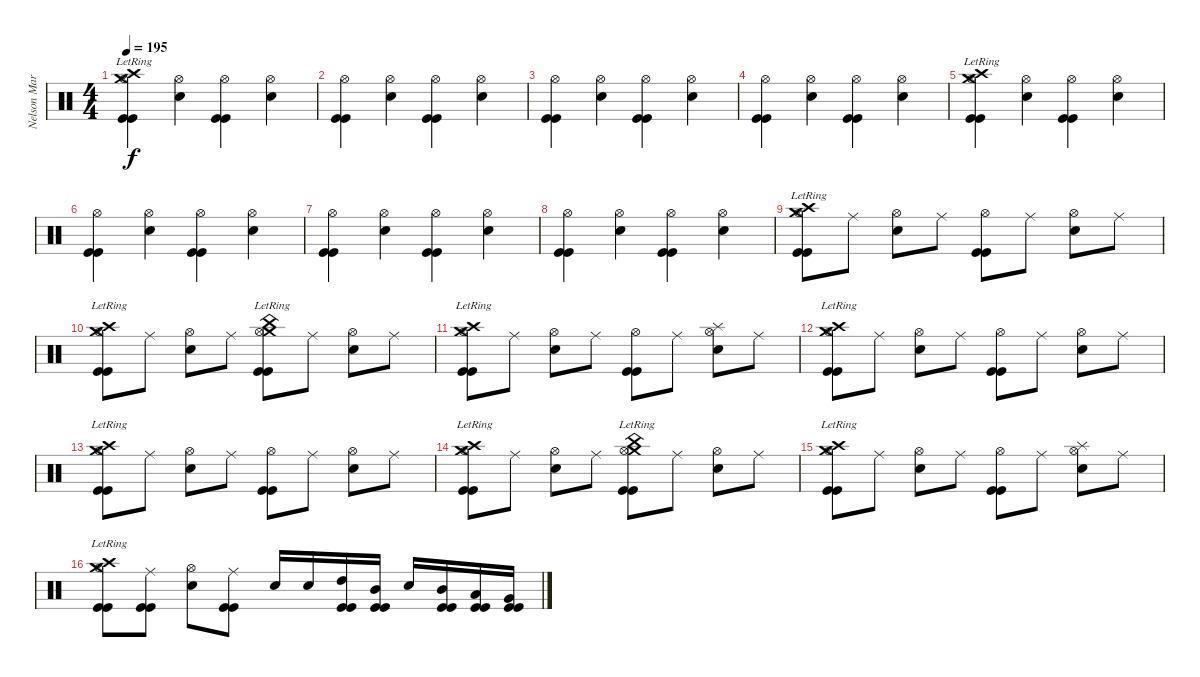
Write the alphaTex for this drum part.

\track ("Nelson Maria" "Nelson Mar") {instrument percussion}
\staff {score}
\articulation defaults
\ts (4 4)
\tempo 195
\clef neutral
\ks c
("Crash high (hit)"{lr} "Crash medium (hit)"{lr} "Hi-Hat (open)" "Kick (hit)" "Kick (hit)").4{dy f} ("Snare (hit) 2" "Hi-Hat (open)").4 ("Hi-Hat (open)" "Kick (hit)" "Kick (hit)").4 ("Snare (hit) 2" "Hi-Hat (open)").4 |
("Hi-Hat (open)" "Kick (hit)" "Kick (hit)").4 ("Snare (hit) 2" "Hi-Hat (open)").4 ("Hi-Hat (open)" "Kick (hit)" "Kick (hit)").4 ("Snare (hit) 2" "Hi-Hat (open)").4 |
("Hi-Hat (open)" "Kick (hit)" "Kick (hit)").4 ("Snare (hit) 2" "Hi-Hat (open)").4 ("Hi-Hat (open)" "Kick (hit)" "Kick (hit)").4 ("Snare (hit) 2" "Hi-Hat (open)").4 |
("Hi-Hat (open)" "Kick (hit)" "Kick (hit)").4 ("Snare (hit) 2" "Hi-Hat (open)").4 ("Hi-Hat (open)" "Kick (hit)" "Kick (hit)").4 ("Snare (hit) 2" "Hi-Hat (open)").4 |
("Crash high (hit)"{lr} "Crash medium (hit)"{lr} "Hi-Hat (open)" "Kick (hit)" "Kick (hit)").4 ("Snare (hit) 2" "Hi-Hat (open)").4 ("Hi-Hat (open)" "Kick (hit)" "Kick (hit)").4 ("Snare (hit) 2" "Hi-Hat (open)").4 |
("Hi-Hat (open)" "Kick (hit)" "Kick (hit)").4 ("Snare (hit) 2" "Hi-Hat (open)").4 ("Hi-Hat (open)" "Kick (hit)" "Kick (hit)").4 ("Snare (hit) 2" "Hi-Hat (open)").4 |
("Hi-Hat (open)" "Kick (hit)" "Kick (hit)").4 ("Snare (hit) 2" "Hi-Hat (open)").4 ("Hi-Hat (open)" "Kick (hit)" "Kick (hit)").4 ("Snare (hit) 2" "Hi-Hat (open)").4 |
("Hi-Hat (open)" "Kick (hit)" "Kick (hit)").4 ("Snare (hit) 2" "Hi-Hat (open)").4 ("Hi-Hat (open)" "Kick (hit)" "Kick (hit)").4 ("Snare (hit) 2" "Hi-Hat (open)").4 |
("Crash high (hit)"{lr} "Crash medium (hit)"{lr} "Hi-Hat (open)" "Kick (hit)" "Kick (hit)").8 "Ride (middle)".8 ("Snare (hit) 2" "Hi-Hat (open)").8 "Ride (middle)".8 ("Hi-Hat (open)" "Kick (hit)" "Kick (hit)").8 "Ride (middle)".8 ("Snare (hit) 2" "Hi-Hat (open)").8 "Ride (middle)".8 |
("Crash high (hit)"{lr} "Crash medium (hit)"{lr} "Hi-Hat (open)" "Kick (hit)" "Kick (hit)").8 "Ride (middle)".8 ("Snare (hit) 2" "Hi-Hat (open)").8 "Ride (middle)".8 ("Crash medium (hit)"{lr} "China (hit)"{lr} "Hi-Hat (open)" "Kick (hit)" "Kick (hit)").8 "Ride (middle)".8 ("Snare (hit) 2" "Hi-Hat (open)").8 "Ride (middle)".8 |
("Crash high (hit)"{lr} "Crash medium (hit)"{lr} "Hi-Hat (open)" "Kick (hit)" "Kick (hit)").8 "Ride (middle)".8 ("Snare (hit) 2" "Hi-Hat (open)").8 "Ride (middle)".8 ("Hi-Hat (open)" "Kick (hit)" "Kick (hit)").8 "Ride (middle)".8 ("Splash (hit)" "Snare (hit) 2" "Hi-Hat (open)").8 "Ride (middle)".8 |
("Crash high (hit)"{lr} "Crash medium (hit)"{lr} "Hi-Hat (open)" "Kick (hit)" "Kick (hit)").8 "Ride (middle)".8 ("Snare (hit) 2" "Hi-Hat (open)").8 "Ride (middle)".8 ("Hi-Hat (open)" "Kick (hit)" "Kick (hit)").8 "Ride (middle)".8 ("Snare (hit) 2" "Hi-Hat (open)").8 "Ride (middle)".8 |
("Crash high (hit)"{lr} "Crash medium (hit)"{lr} "Hi-Hat (open)" "Kick (hit)" "Kick (hit)").8 "Ride (middle)".8 ("Snare (hit) 2" "Hi-Hat (open)").8 "Ride (middle)".8 ("Hi-Hat (open)" "Kick (hit)" "Kick (hit)").8 "Ride (middle)".8 ("Snare (hit) 2" "Hi-Hat (open)").8 "Ride (middle)".8 |
("Crash high (hit)"{lr} "Crash medium (hit)"{lr} "Hi-Hat (open)" "Kick (hit)" "Kick (hit)").8 "Ride (middle)".8 ("Snare (hit) 2" "Hi-Hat (open)").8 "Ride (middle)".8 ("Crash medium (hit)"{lr} "China (hit)"{lr} "Hi-Hat (open)" "Kick (hit)" "Kick (hit)").8 "Ride (middle)".8 ("Snare (hit) 2" "Hi-Hat (open)").8 "Ride (middle)".8 |
("Crash high (hit)"{lr} "Crash medium (hit)"{lr} "Hi-Hat (open)" "Kick (hit)" "Kick (hit)").8 "Ride (middle)".8 ("Snare (hit) 2" "Hi-Hat (open)").8 "Ride (middle)".8 ("Hi-Hat (open)" "Kick (hit)" "Kick (hit)").8 "Ride (middle)".8 ("Splash (hit)" "Snare (hit) 2" "Hi-Hat (open)").8 "Ride (middle)".8 |
("Crash high (hit)"{lr} "Crash medium (hit)"{lr} "Hi-Hat (open)" "Kick (hit)" "Kick (hit)").8 ("Ride (middle)" "Kick (hit)" "Kick (hit)").8 ("Snare (hit) 2" "Hi-Hat (open)").8 ("Ride (middle)" "Kick (hit)" "Kick (hit)").8 "Snare (hit) 2".16 "Snare (hit) 2".16 ("High Tom (hit)" "Kick (hit)" "Kick (hit)").16 ("Mid Tom (hit)" "Kick (hit)" "Kick (hit)").16 "Electric Snare (hit)".16 ("Mid Tom (hit)" "Kick (hit)" "Kick (hit)").16 ("Low Tom (hit)" "Kick (hit)" "Kick (hit)").16 ("Very Low Tom (hit)" "Kick (hit)" "Kick (hit)").16
